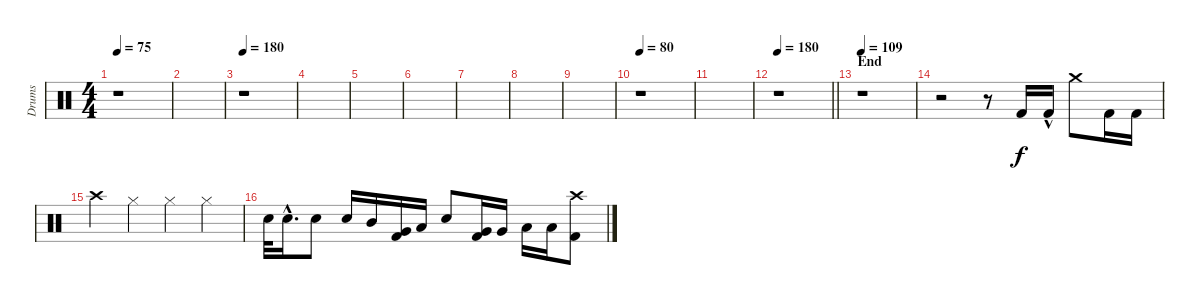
\track ("Drums" "Drums") {instrument percussion}
\staff {score}
\articulation defaults
\ts (4 4)
\tempo 75
\clef neutral
\ks c
r.1{dy f} |
|
\tempo 180
r.1 |
|
|
|
|
|
|
\tempo 80
r.1 |
|
\tempo 180
\barLineRight lightlight
r.1 |
\section ("" "End")
\tempo 109
r.1 |
r.2 r.8 "Kick (hit) 2".16 "Kick (hit) 2"{hac}.16 "Crash medium (hit)".8 "Kick (hit) 2".16 "Kick (hit) 2".16 |
"Crash high (hit)".4 "Hi-Hat (closed)".4 "Hi-Hat (closed)".4 "Hi-Hat (closed)".4 |
"Snare (hit) 2".32 "Snare (hit) 2"{hac}.16{d} "Snare (hit) 2".8 "Snare (hit) 2".16 "Mid Tom (hit)".16 ("Kick (hit) 2" "Very Low Tom (hit)").16 "Low Floor Tom (hit)".16 "Snare (hit) 2".8 ("Kick (hit) 2" "Very Low Tom (hit)").16 "Very Low Tom (hit)".16 "Low Floor Tom (hit)".16 "Low Floor Tom (hit)".16 ("Kick (hit) 2" "Crash high (hit)").8
